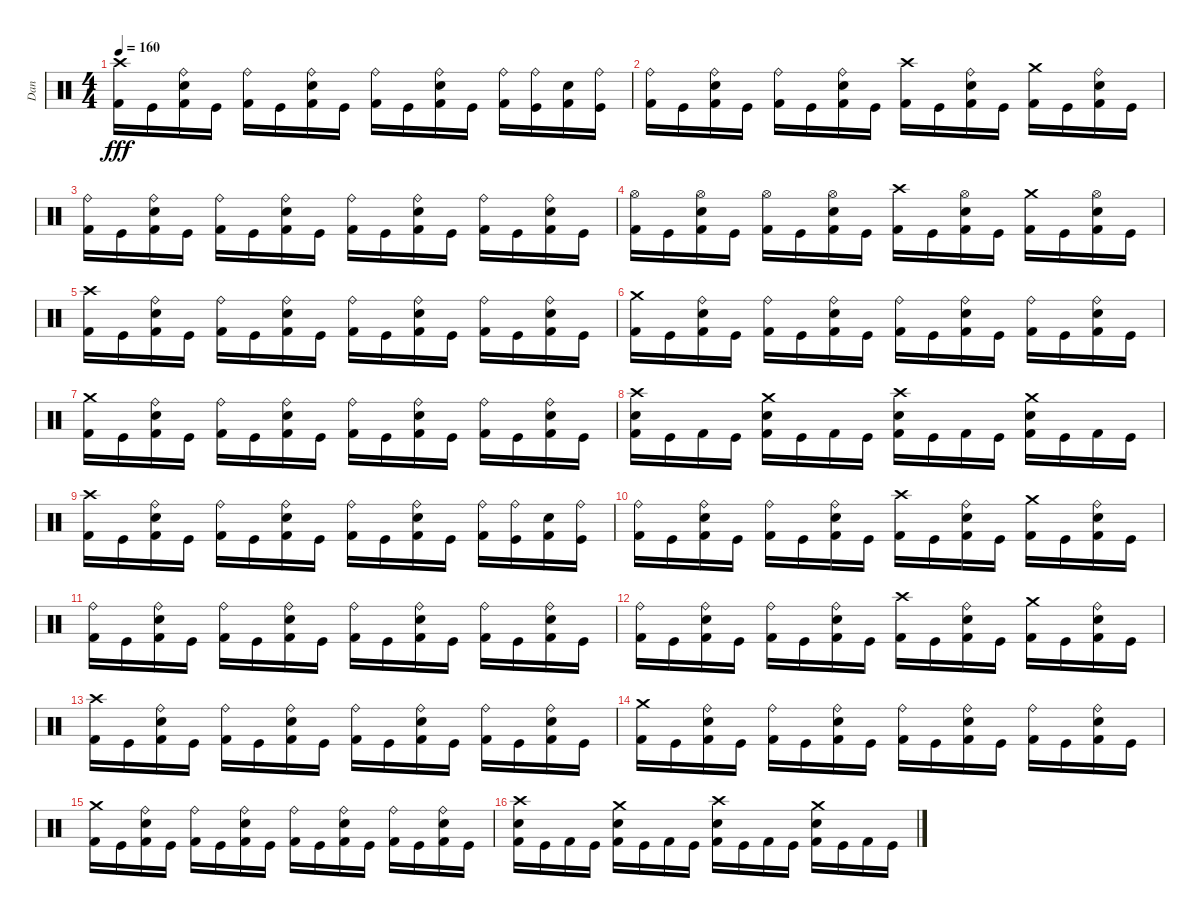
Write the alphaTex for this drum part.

\track ("Dan " "Dan ") {instrument percussion}
\staff {score}
\articulation defaults
\ts (4 4)
\tempo 160
\clef neutral
\ks c
("Crash high (hit)" "Kick (hit) 2").16{dy fff} "Kick (hit)".16 ("Ride (bell)" "Electric Snare (hit)" "Kick (hit) 2").16 "Kick (hit)".16 ("Ride (bell)" "Kick (hit) 2").16 "Kick (hit)".16 ("Ride (bell)" "Electric Snare (hit)" "Kick (hit) 2").16 "Kick (hit)".16 ("Ride (bell)" "Kick (hit) 2").16 "Kick (hit)".16 ("Ride (bell)" "Electric Snare (hit)" "Kick (hit) 2").16 "Kick (hit)".16 ("Ride (bell)" "Kick (hit) 2").16 ("Ride (bell)" "Kick (hit)").16 ("Electric Snare (hit)" "Kick (hit) 2").16 ("Ride (bell)" "Kick (hit)").16 |
("Ride (bell)" "Kick (hit) 2").16 "Kick (hit)".16 ("Ride (bell)" "Electric Snare (hit)" "Kick (hit) 2").16 "Kick (hit)".16 ("Ride (bell)" "Kick (hit) 2").16 "Kick (hit)".16 ("Ride (bell)" "Electric Snare (hit)" "Kick (hit) 2").16 "Kick (hit)".16 ("Crash high (hit)" "Kick (hit) 2").16 "Kick (hit)".16 ("Ride (bell)" "Electric Snare (hit)" "Kick (hit) 2").16 "Kick (hit)".16 ("Crash medium (hit)" "Kick (hit) 2").16 "Kick (hit)".16 ("Ride (bell)" "Electric Snare (hit)" "Kick (hit) 2").16 "Kick (hit)".16 |
("Ride (bell)" "Kick (hit) 2").16 "Kick (hit)".16 ("Ride (bell)" "Electric Snare (hit)" "Kick (hit) 2").16 "Kick (hit)".16 ("Ride (bell)" "Kick (hit) 2").16 "Kick (hit)".16 ("Ride (bell)" "Electric Snare (hit)" "Kick (hit) 2").16 "Kick (hit)".16 ("Ride (bell)" "Kick (hit) 2").16 "Kick (hit)".16 ("Ride (bell)" "Electric Snare (hit)" "Kick (hit) 2").16 "Kick (hit)".16 ("Ride (bell)" "Kick (hit) 2").16 "Kick (hit)".16 ("Ride (bell)" "Electric Snare (hit)" "Kick (hit) 2").16 "Kick (hit)".16 |
("Hi-Hat (open)" "Kick (hit) 2").16 "Kick (hit)".16 ("Hi-Hat (open)" "Electric Snare (hit)" "Kick (hit) 2").16 "Kick (hit)".16 ("Hi-Hat (open)" "Kick (hit) 2").16 "Kick (hit)".16 ("Hi-Hat (open)" "Electric Snare (hit)" "Kick (hit) 2").16 "Kick (hit)".16 ("Crash high (hit)" "Kick (hit) 2").16 "Kick (hit)".16 ("Hi-Hat (open)" "Electric Snare (hit)" "Kick (hit) 2").16 "Kick (hit)".16 ("Crash medium (hit)" "Kick (hit) 2").16 "Kick (hit)".16 ("Hi-Hat (open)" "Electric Snare (hit)" "Kick (hit) 2").16 "Kick (hit)".16 |
("Crash high (hit)" "Kick (hit) 2").16 "Kick (hit)".16 ("Ride (bell)" "Electric Snare (hit)" "Kick (hit) 2").16 "Kick (hit)".16 ("Ride (bell)" "Kick (hit) 2").16 "Kick (hit)".16 ("Ride (bell)" "Electric Snare (hit)" "Kick (hit) 2").16 "Kick (hit)".16 ("Ride (bell)" "Kick (hit) 2").16 "Kick (hit)".16 ("Ride (bell)" "Electric Snare (hit)" "Kick (hit) 2").16 "Kick (hit)".16 ("Ride (bell)" "Kick (hit) 2").16 "Kick (hit)".16 ("Ride (bell)" "Electric Snare (hit)" "Kick (hit) 2").16 "Kick (hit)".16 |
("Crash medium (hit)" "Kick (hit) 2").16 "Kick (hit)".16 ("Ride (bell)" "Electric Snare (hit)" "Kick (hit) 2").16 "Kick (hit)".16 ("Ride (bell)" "Kick (hit) 2").16 "Kick (hit)".16 ("Ride (bell)" "Electric Snare (hit)" "Kick (hit) 2").16 "Kick (hit)".16 ("Ride (bell)" "Kick (hit) 2").16 "Kick (hit)".16 ("Ride (bell)" "Electric Snare (hit)" "Kick (hit) 2").16 "Kick (hit)".16 ("Ride (bell)" "Kick (hit) 2").16 "Kick (hit)".16 ("Ride (bell)" "Electric Snare (hit)" "Kick (hit) 2").16 "Kick (hit)".16 |
("Crash medium (hit)" "Kick (hit) 2").16 "Kick (hit)".16 ("Ride (bell)" "Electric Snare (hit)" "Kick (hit) 2").16 "Kick (hit)".16 ("Ride (bell)" "Kick (hit) 2").16 "Kick (hit)".16 ("Ride (bell)" "Electric Snare (hit)" "Kick (hit) 2").16 "Kick (hit)".16 ("Ride (bell)" "Kick (hit) 2").16 "Kick (hit)".16 ("Ride (bell)" "Electric Snare (hit)" "Kick (hit) 2").16 "Kick (hit)".16 ("Ride (bell)" "Kick (hit) 2").16 "Kick (hit)".16 ("Ride (bell)" "Electric Snare (hit)" "Kick (hit) 2").16 "Kick (hit)".16 |
("Crash high (hit)" "Electric Snare (hit)" "Kick (hit) 2").16 "Kick (hit)".16 "Kick (hit) 2".16 "Kick (hit)".16 ("Crash medium (hit)" "Electric Snare (hit)" "Kick (hit) 2").16 "Kick (hit)".16 "Kick (hit) 2".16 "Kick (hit)".16 ("Crash high (hit)" "Electric Snare (hit)" "Kick (hit) 2").16 "Kick (hit)".16 "Kick (hit) 2".16 "Kick (hit)".16 ("Crash medium (hit)" "Electric Snare (hit)" "Kick (hit) 2").16 "Kick (hit)".16 "Kick (hit) 2".16 "Kick (hit)".16 |
("Crash high (hit)" "Kick (hit) 2").16 "Kick (hit)".16 ("Ride (bell)" "Electric Snare (hit)" "Kick (hit) 2").16 "Kick (hit)".16 ("Ride (bell)" "Kick (hit) 2").16 "Kick (hit)".16 ("Ride (bell)" "Electric Snare (hit)" "Kick (hit) 2").16 "Kick (hit)".16 ("Ride (bell)" "Kick (hit) 2").16 "Kick (hit)".16 ("Ride (bell)" "Electric Snare (hit)" "Kick (hit) 2").16 "Kick (hit)".16 ("Ride (bell)" "Kick (hit) 2").16 ("Ride (bell)" "Kick (hit)").16 ("Electric Snare (hit)" "Kick (hit) 2").16 ("Ride (bell)" "Kick (hit)").16 |
("Ride (bell)" "Kick (hit) 2").16 "Kick (hit)".16 ("Ride (bell)" "Electric Snare (hit)" "Kick (hit) 2").16 "Kick (hit)".16 ("Ride (bell)" "Kick (hit) 2").16 "Kick (hit)".16 ("Ride (bell)" "Electric Snare (hit)" "Kick (hit) 2").16 "Kick (hit)".16 ("Crash high (hit)" "Kick (hit) 2").16 "Kick (hit)".16 ("Ride (bell)" "Electric Snare (hit)" "Kick (hit) 2").16 "Kick (hit)".16 ("Crash medium (hit)" "Kick (hit) 2").16 "Kick (hit)".16 ("Ride (bell)" "Electric Snare (hit)" "Kick (hit) 2").16 "Kick (hit)".16 |
("Ride (bell)" "Kick (hit) 2").16 "Kick (hit)".16 ("Ride (bell)" "Electric Snare (hit)" "Kick (hit) 2").16 "Kick (hit)".16 ("Ride (bell)" "Kick (hit) 2").16 "Kick (hit)".16 ("Ride (bell)" "Electric Snare (hit)" "Kick (hit) 2").16 "Kick (hit)".16 ("Ride (bell)" "Kick (hit) 2").16 "Kick (hit)".16 ("Ride (bell)" "Electric Snare (hit)" "Kick (hit) 2").16 "Kick (hit)".16 ("Ride (bell)" "Kick (hit) 2").16 "Kick (hit)".16 ("Ride (bell)" "Electric Snare (hit)" "Kick (hit) 2").16 "Kick (hit)".16 |
("Ride (bell)" "Kick (hit) 2").16 "Kick (hit)".16 ("Ride (bell)" "Electric Snare (hit)" "Kick (hit) 2").16 "Kick (hit)".16 ("Ride (bell)" "Kick (hit) 2").16 "Kick (hit)".16 ("Ride (bell)" "Electric Snare (hit)" "Kick (hit) 2").16 "Kick (hit)".16 ("Crash high (hit)" "Kick (hit) 2").16 "Kick (hit)".16 ("Ride (bell)" "Electric Snare (hit)" "Kick (hit) 2").16 "Kick (hit)".16 ("Crash medium (hit)" "Kick (hit) 2").16 "Kick (hit)".16 ("Ride (bell)" "Electric Snare (hit)" "Kick (hit) 2").16 "Kick (hit)".16 |
("Crash high (hit)" "Kick (hit) 2").16 "Kick (hit)".16 ("Ride (bell)" "Electric Snare (hit)" "Kick (hit) 2").16 "Kick (hit)".16 ("Ride (bell)" "Kick (hit) 2").16 "Kick (hit)".16 ("Ride (bell)" "Electric Snare (hit)" "Kick (hit) 2").16 "Kick (hit)".16 ("Ride (bell)" "Kick (hit) 2").16 "Kick (hit)".16 ("Ride (bell)" "Electric Snare (hit)" "Kick (hit) 2").16 "Kick (hit)".16 ("Ride (bell)" "Kick (hit) 2").16 "Kick (hit)".16 ("Ride (bell)" "Electric Snare (hit)" "Kick (hit) 2").16 "Kick (hit)".16 |
("Crash medium (hit)" "Kick (hit) 2").16 "Kick (hit)".16 ("Ride (bell)" "Electric Snare (hit)" "Kick (hit) 2").16 "Kick (hit)".16 ("Ride (bell)" "Kick (hit) 2").16 "Kick (hit)".16 ("Ride (bell)" "Electric Snare (hit)" "Kick (hit) 2").16 "Kick (hit)".16 ("Ride (bell)" "Kick (hit) 2").16 "Kick (hit)".16 ("Ride (bell)" "Electric Snare (hit)" "Kick (hit) 2").16 "Kick (hit)".16 ("Ride (bell)" "Kick (hit) 2").16 "Kick (hit)".16 ("Ride (bell)" "Electric Snare (hit)" "Kick (hit) 2").16 "Kick (hit)".16 |
("Crash medium (hit)" "Kick (hit) 2").16 "Kick (hit)".16 ("Ride (bell)" "Electric Snare (hit)" "Kick (hit) 2").16 "Kick (hit)".16 ("Ride (bell)" "Kick (hit) 2").16 "Kick (hit)".16 ("Ride (bell)" "Electric Snare (hit)" "Kick (hit) 2").16 "Kick (hit)".16 ("Ride (bell)" "Kick (hit) 2").16 "Kick (hit)".16 ("Ride (bell)" "Electric Snare (hit)" "Kick (hit) 2").16 "Kick (hit)".16 ("Ride (bell)" "Kick (hit) 2").16 "Kick (hit)".16 ("Ride (bell)" "Electric Snare (hit)" "Kick (hit) 2").16 "Kick (hit)".16 |
("Crash high (hit)" "Electric Snare (hit)" "Kick (hit) 2").16 "Kick (hit)".16 "Kick (hit) 2".16 "Kick (hit)".16 ("Crash medium (hit)" "Electric Snare (hit)" "Kick (hit) 2").16 "Kick (hit)".16 "Kick (hit) 2".16 "Kick (hit)".16 ("Crash high (hit)" "Electric Snare (hit)" "Kick (hit) 2").16 "Kick (hit)".16 "Kick (hit) 2".16 "Kick (hit)".16 ("Crash medium (hit)" "Electric Snare (hit)" "Kick (hit) 2").16 "Kick (hit)".16 "Kick (hit) 2".16 "Kick (hit)".16
